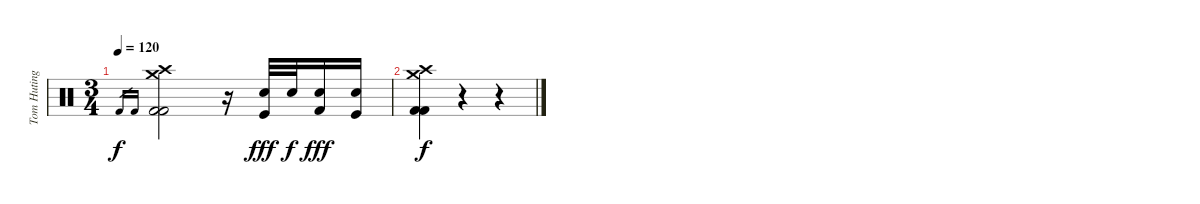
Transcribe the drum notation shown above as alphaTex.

\track ("Tom Huting" "Tom Huting") {instrument percussion}
\staff {score}
\articulation defaults
\ts (3 4)
\tempo 120
\clef neutral
\ks c "Kick (hit) 2".16{gr dy f} "Kick (hit) 2".16{gr}
("Kick (hit) 2" "Kick (hit) 2" "Crash medium (hit)" "Crash high (hit)").2 r.16 ("Kick (hit)" "Snare (hit) 2").32{dy fff} "Snare (hit) 2".32{dy f} ("Kick (hit) 2" "Snare (hit) 2").16{dy fff} ("Kick (hit)" "Snare (hit) 2").16 |
("Kick (hit) 2" "Kick (hit) 2" "Crash medium (hit)" "Crash high (hit)").4{dy f} r.4 r.4
